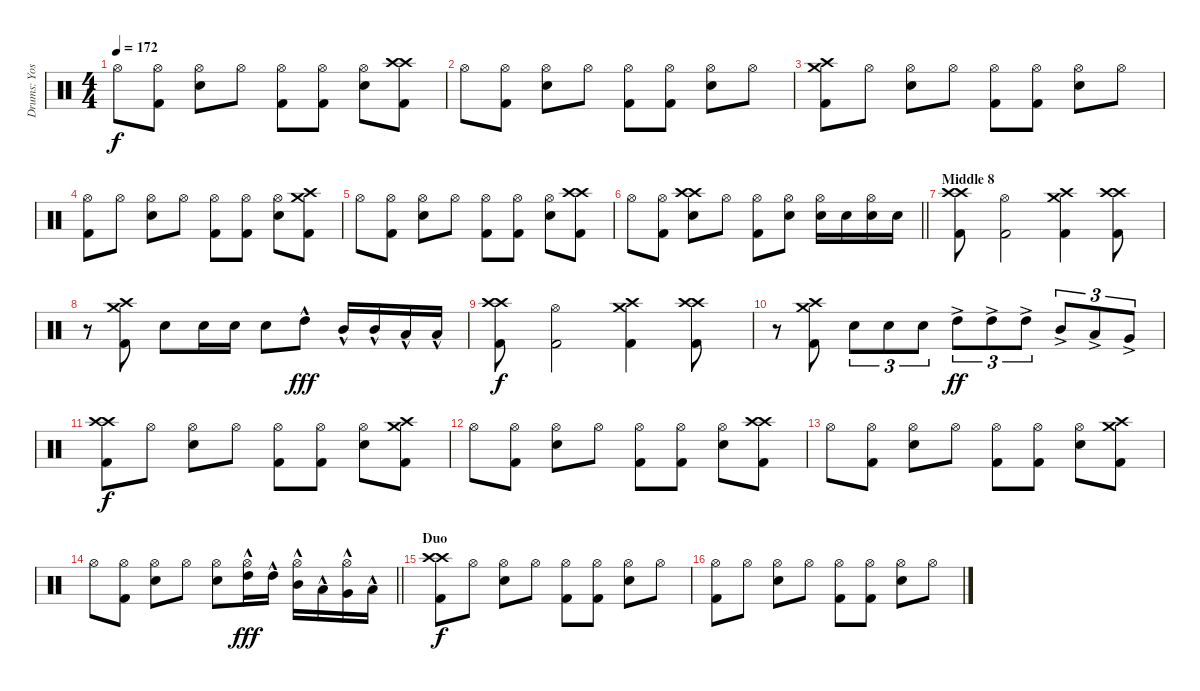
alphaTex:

\track ("Drums: Yoshiki" "Drums: Yos") {instrument percussion}
\staff {score}
\articulation defaults
\ts (4 4)
\tempo 172
\clef neutral
\ks c "Hi-Hat (open)".8{dy f}
("Hi-Hat (open)" "Kick (hit) 2").8 ("Hi-Hat (open)" "Snare (hit) 2").8 "Hi-Hat (open)".8 ("Hi-Hat (open)" "Kick (hit) 2").8 ("Hi-Hat (open)" "Kick (hit) 2").8 ("Hi-Hat (open)" "Snare (hit) 2").8 ("Crash high (hit)" "Crash high (hit)" "Kick (hit) 2").8 |
"Hi-Hat (open)".8 ("Hi-Hat (open)" "Kick (hit) 2").8 ("Hi-Hat (open)" "Snare (hit) 2").8 "Hi-Hat (open)".8 ("Hi-Hat (open)" "Kick (hit) 2").8 ("Hi-Hat (open)" "Kick (hit) 2").8 ("Hi-Hat (open)" "Snare (hit) 2").8 "Hi-Hat (open)".8 |
("Crash high (hit)" "Crash medium (hit)" "Kick (hit) 2").8 "Hi-Hat (open)".8 ("Hi-Hat (open)" "Snare (hit) 2").8 "Hi-Hat (open)".8 ("Hi-Hat (open)" "Kick (hit) 2").8 ("Hi-Hat (open)" "Kick (hit) 2").8 ("Hi-Hat (open)" "Snare (hit) 2").8 "Hi-Hat (open)".8 |
("Hi-Hat (open)" "Kick (hit) 2").8 "Hi-Hat (open)".8 ("Hi-Hat (open)" "Snare (hit) 2").8 "Hi-Hat (open)".8 ("Hi-Hat (open)" "Kick (hit) 2").8 ("Hi-Hat (open)" "Kick (hit) 2").8 ("Hi-Hat (open)" "Snare (hit) 2").8 ("Crash high (hit)" "Crash medium (hit)" "Kick (hit) 2").8 |
"Hi-Hat (open)".8 ("Hi-Hat (open)" "Kick (hit) 2").8 ("Hi-Hat (open)" "Snare (hit) 2").8 "Hi-Hat (open)".8 ("Hi-Hat (open)" "Kick (hit) 2").8 ("Hi-Hat (open)" "Kick (hit) 2").8 ("Hi-Hat (open)" "Snare (hit) 2").8 ("Crash high (hit)" "Crash high (hit)" "Kick (hit) 2").8 |
\barLineRight lightlight "Hi-Hat (open)".8
("Hi-Hat (open)" "Kick (hit) 2").8 ("Crash high (hit)" "Crash high (hit)" "Snare (hit) 2").8 "Hi-Hat (open)".8 ("Hi-Hat (open)" "Kick (hit) 2").8 ("Hi-Hat (open)" "Snare (hit) 2").8 ("Hi-Hat (open)" "Snare (hit) 2").16 "Snare (hit) 2".16 ("Hi-Hat (open)" "Snare (hit) 2").16 "Snare (hit) 2".16 |
\section ("" "Middle 8")
("Crash high (hit)" "Crash high (hit)" "Kick (hit) 2").8 ("Hi-Hat (open)" "Kick (hit) 2").2 ("Crash high (hit)" "Crash medium (hit)" "Kick (hit) 2").4 ("Crash high (hit)" "Crash high (hit)" "Kick (hit) 2").8 |
r.8 ("Crash high (hit)" "Crash medium (hit)" "Kick (hit) 2").8 "Snare (hit) 2".8 "Snare (hit) 2".16 "Snare (hit) 2".16 "Snare (hit) 2".8 "High Tom (hit)"{hac}.8{dy fff} "Mid Tom (hit)"{hac}.16 "Mid Tom (hit)"{hac}.16 "Low Tom (hit)"{hac}.16 "Low Tom (hit)"{hac}.16 |
("Crash high (hit)" "Crash high (hit)" "Kick (hit) 2").8{dy f} ("Hi-Hat (open)" "Kick (hit) 2").2 ("Crash high (hit)" "Crash medium (hit)" "Kick (hit) 2").4 ("Crash high (hit)" "Crash high (hit)" "Kick (hit) 2").8 |
r.8 ("Crash high (hit)" "Crash medium (hit)" "Kick (hit) 2").8 "Snare (hit) 2".8{tu (3 2)} "Snare (hit) 2".8{tu (3 2)} "Snare (hit) 2".8{tu (3 2)} "High Tom (hit)"{ac}.8{tu (3 2) dy ff} "High Tom (hit)"{ac}.8{tu (3 2)} "High Tom (hit)"{ac}.8{tu (3 2)} "Mid Tom (hit)"{ac}.8{tu (3 2)} "Low Tom (hit)"{ac}.8{tu (3 2)} "Very Low Tom (hit)"{ac}.8{tu (3 2)} |
("Crash high (hit)" "Crash high (hit)" "Kick (hit) 2").8{dy f} "Hi-Hat (open)".8 ("Hi-Hat (open)" "Snare (hit) 2").8 "Hi-Hat (open)".8 ("Hi-Hat (open)" "Kick (hit) 2").8 ("Hi-Hat (open)" "Kick (hit) 2").8 ("Hi-Hat (open)" "Snare (hit) 2").8 ("Crash high (hit)" "Crash medium (hit)" "Kick (hit) 2").8 |
"Hi-Hat (open)".8 ("Hi-Hat (open)" "Kick (hit) 2").8 ("Hi-Hat (open)" "Snare (hit) 2").8 "Hi-Hat (open)".8 ("Hi-Hat (open)" "Kick (hit) 2").8 ("Hi-Hat (open)" "Kick (hit) 2").8 ("Hi-Hat (open)" "Snare (hit) 2").8 ("Crash high (hit)" "Crash high (hit)" "Kick (hit) 2").8 |
"Hi-Hat (open)".8 ("Hi-Hat (open)" "Kick (hit) 2").8 ("Hi-Hat (open)" "Snare (hit) 2").8 "Hi-Hat (open)".8 ("Hi-Hat (open)" "Kick (hit) 2").8 ("Hi-Hat (open)" "Kick (hit) 2").8 ("Hi-Hat (open)" "Snare (hit) 2").8 ("Crash high (hit)" "Crash medium (hit)" "Kick (hit) 2").8 |
\barLineRight lightlight "Hi-Hat (open)".8
("Hi-Hat (open)" "Kick (hit) 2").8 ("Hi-Hat (open)" "Snare (hit) 2").8 "Hi-Hat (open)".8 ("Hi-Hat (open)" "Snare (hit) 2").8 ("Hi-Hat (open)" "High Tom (hit)"{hac}).16{dy fff} "High Tom (hit)"{hac}.16 ("Hi-Hat (open)" "Mid Tom (hit)"{hac}).16 "Low Tom (hit)"{hac}.16 ("Hi-Hat (open)" "Very Low Tom (hit)"{hac}).16 "Low Floor Tom (hit)"{hac}.16 |
\section ("" "Duo")
("Crash high (hit)" "Crash high (hit)" "Kick (hit) 2").8{dy f} "Hi-Hat (open)".8 ("Hi-Hat (open)" "Snare (hit) 2").8 "Hi-Hat (open)".8 ("Hi-Hat (open)" "Kick (hit) 2").8 ("Hi-Hat (open)" "Kick (hit) 2").8 ("Hi-Hat (open)" "Snare (hit) 2").8 "Hi-Hat (open)".8 |
("Hi-Hat (open)" "Kick (hit) 2").8 "Hi-Hat (open)".8 ("Hi-Hat (open)" "Snare (hit) 2").8 "Hi-Hat (open)".8 ("Hi-Hat (open)" "Kick (hit) 2").8 ("Hi-Hat (open)" "Kick (hit) 2").8 ("Hi-Hat (open)" "Snare (hit) 2").8 "Hi-Hat (open)".8
